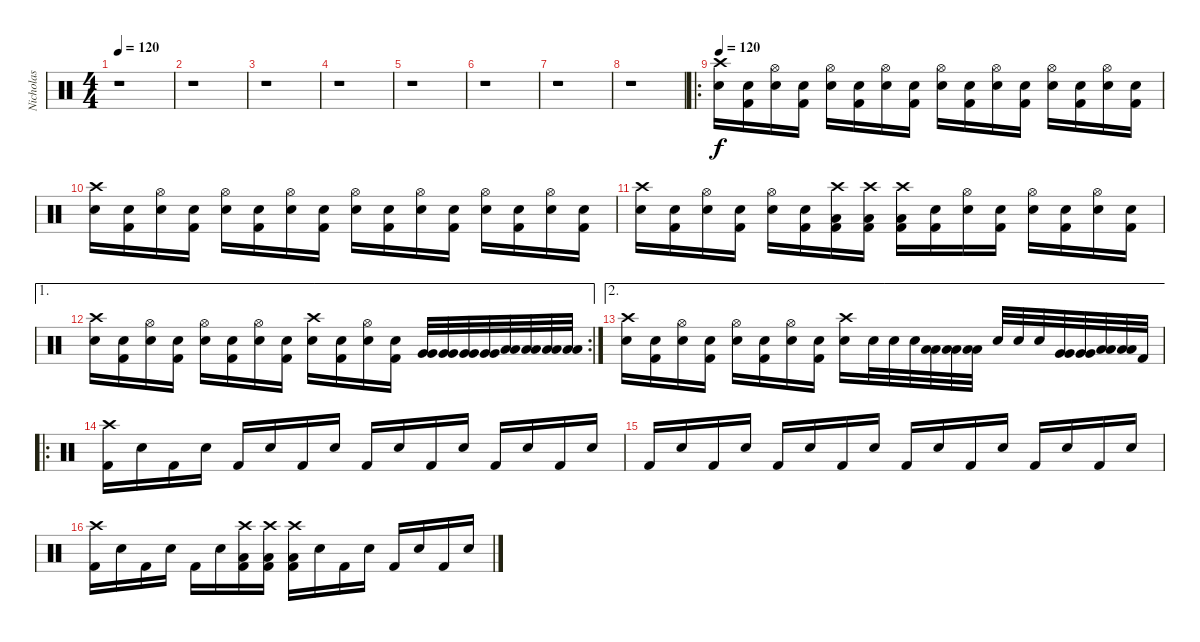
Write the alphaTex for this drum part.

\track ("Nicholas" "Nicholas") {instrument percussion}
\staff {score}
\articulation defaults
\ts (4 4)
\tempo 120
\clef neutral
\ks c
r.1{dy f} |
r.1 |
r.1 |
r.1 |
r.1 |
r.1 |
r.1 |
r.1 |
\ro
\tempo 120
("Electric Snare (hit)" "Crash high (hit)").16 ("Kick (hit) 2" "Electric Snare (hit)").16 ("Electric Snare (hit)" "Hi-Hat (open)").16 ("Kick (hit) 2" "Electric Snare (hit)").16 ("Electric Snare (hit)" "Hi-Hat (open)").16 ("Kick (hit) 2" "Electric Snare (hit)").16 ("Electric Snare (hit)" "Hi-Hat (open)").16 ("Kick (hit) 2" "Electric Snare (hit)").16 ("Electric Snare (hit)" "Hi-Hat (open)").16 ("Kick (hit) 2" "Electric Snare (hit)").16 ("Electric Snare (hit)" "Hi-Hat (open)").16 ("Kick (hit) 2" "Electric Snare (hit)").16 ("Electric Snare (hit)" "Hi-Hat (open)").16 ("Kick (hit) 2" "Electric Snare (hit)").16 ("Electric Snare (hit)" "Hi-Hat (open)").16 ("Kick (hit) 2" "Electric Snare (hit)").16 |
("Electric Snare (hit)" "Crash high (hit)").16 ("Kick (hit) 2" "Electric Snare (hit)").16 ("Electric Snare (hit)" "Hi-Hat (open)").16 ("Kick (hit) 2" "Electric Snare (hit)").16 ("Electric Snare (hit)" "Hi-Hat (open)").16 ("Kick (hit) 2" "Electric Snare (hit)").16 ("Electric Snare (hit)" "Hi-Hat (open)").16 ("Kick (hit) 2" "Electric Snare (hit)").16 ("Electric Snare (hit)" "Hi-Hat (open)").16 ("Kick (hit) 2" "Electric Snare (hit)").16 ("Electric Snare (hit)" "Hi-Hat (open)").16 ("Kick (hit) 2" "Electric Snare (hit)").16 ("Electric Snare (hit)" "Hi-Hat (open)").16 ("Kick (hit) 2" "Electric Snare (hit)").16 ("Electric Snare (hit)" "Hi-Hat (open)").16 ("Kick (hit) 2" "Electric Snare (hit)").16 |
("Electric Snare (hit)" "Crash high (hit)").16 ("Kick (hit) 2" "Electric Snare (hit)").16 ("Electric Snare (hit)" "Hi-Hat (open)").16 ("Kick (hit) 2" "Electric Snare (hit)").16 ("Electric Snare (hit)" "Hi-Hat (open)").16 ("Kick (hit) 2" "Electric Snare (hit)").16 ("Kick (hit) 2" "Low Floor Tom (hit)" "Crash high (hit)").16 ("Kick (hit) 2" "Low Floor Tom (hit)" "Crash high (hit)").16 ("Kick (hit) 2" "Low Floor Tom (hit)" "Crash high (hit)").16 ("Kick (hit) 2" "Electric Snare (hit)").16 ("Electric Snare (hit)" "Hi-Hat (open)").16 ("Kick (hit) 2" "Electric Snare (hit)").16 ("Electric Snare (hit)" "Hi-Hat (open)").16 ("Kick (hit) 2" "Electric Snare (hit)").16 ("Electric Snare (hit)" "Hi-Hat (open)").16 ("Kick (hit) 2" "Electric Snare (hit)").16 |
\ae 1
\rc 2
("Electric Snare (hit)" "Crash high (hit)").16 ("Kick (hit) 2" "Electric Snare (hit)").16 ("Electric Snare (hit)" "Hi-Hat (open)").16 ("Kick (hit) 2" "Electric Snare (hit)").16 ("Electric Snare (hit)" "Hi-Hat (open)").16 ("Kick (hit) 2" "Electric Snare (hit)").16 ("Electric Snare (hit)" "Hi-Hat (open)").16 ("Kick (hit) 2" "Electric Snare (hit)").16 ("Electric Snare (hit)" "Crash high (hit)").16 ("Kick (hit) 2" "Electric Snare (hit)").16 ("Electric Snare (hit)" "Hi-Hat (open)").16 ("Kick (hit) 2" "Electric Snare (hit)").16 ("Very Low Tom (hit)" "Very Low Tom (hit)").32 ("Very Low Tom (hit)" "Very Low Tom (hit)").32 ("Very Low Tom (hit)" "Very Low Tom (hit)").32 ("Very Low Tom (hit)" "Very Low Tom (hit)").32 ("Low Floor Tom (hit)" "Low Floor Tom (hit)").32 ("Low Floor Tom (hit)" "Low Floor Tom (hit)").32 ("Low Floor Tom (hit)" "Low Floor Tom (hit)").32 ("Low Floor Tom (hit)" "Low Floor Tom (hit)").32 |
\ae 2
("Electric Snare (hit)" "Crash high (hit)").16 ("Kick (hit) 2" "Electric Snare (hit)").16 ("Electric Snare (hit)" "Hi-Hat (open)").16 ("Kick (hit) 2" "Electric Snare (hit)").16 ("Electric Snare (hit)" "Hi-Hat (open)").16 ("Kick (hit) 2" "Electric Snare (hit)").16 ("Electric Snare (hit)" "Hi-Hat (open)").16 ("Kick (hit) 2" "Electric Snare (hit)").16 ("Electric Snare (hit)" "Crash high (hit)").16 "Electric Snare (hit)".32 "Electric Snare (hit)".32 "Electric Snare (hit)".32 ("Low Tom (hit)" "Low Tom (hit)").32 ("Low Tom (hit)" "Low Tom (hit)").32 ("Low Tom (hit)" "Low Tom (hit)").32 "Electric Snare (hit)".32 "Electric Snare (hit)".32 "Electric Snare (hit)".32 ("Very Low Tom (hit)" "Very Low Tom (hit)").32 ("Very Low Tom (hit)" "Very Low Tom (hit)").32 ("Low Floor Tom (hit)" "Low Floor Tom (hit)").32 ("Low Floor Tom (hit)" "Low Floor Tom (hit)").32 "Kick (hit) 2".32 |
\ro
("Kick (hit) 2" "Crash high (hit)").16 "Electric Snare (hit)".16 "Kick (hit) 2".16 "Electric Snare (hit)".16 "Kick (hit) 2".16 "Electric Snare (hit)".16 "Kick (hit) 2".16 "Electric Snare (hit)".16 "Kick (hit) 2".16 "Electric Snare (hit)".16 "Kick (hit) 2".16 "Electric Snare (hit)".16 "Kick (hit) 2".16 "Electric Snare (hit)".16 "Kick (hit) 2".16 "Electric Snare (hit)".16 |
"Kick (hit) 2".16 "Electric Snare (hit)".16 "Kick (hit) 2".16 "Electric Snare (hit)".16 "Kick (hit) 2".16 "Electric Snare (hit)".16 "Kick (hit) 2".16 "Electric Snare (hit)".16 "Kick (hit) 2".16 "Electric Snare (hit)".16 "Kick (hit) 2".16 "Electric Snare (hit)".16 "Kick (hit) 2".16 "Electric Snare (hit)".16 "Kick (hit) 2".16 "Electric Snare (hit)".16 |
("Kick (hit) 2" "Crash high (hit)").16 "Electric Snare (hit)".16 "Kick (hit) 2".16 "Electric Snare (hit)".16 "Kick (hit) 2".16 "Electric Snare (hit)".16 ("Low Floor Tom (hit)" "Kick (hit) 2" "Crash high (hit)").16 ("Low Floor Tom (hit)" "Kick (hit) 2" "Crash high (hit)").16 ("Low Floor Tom (hit)" "Kick (hit) 2" "Crash high (hit)").16 "Electric Snare (hit)".16 "Kick (hit) 2".16 "Electric Snare (hit)".16 "Kick (hit) 2".16 "Electric Snare (hit)".16 "Kick (hit) 2".16 "Electric Snare (hit)".16
